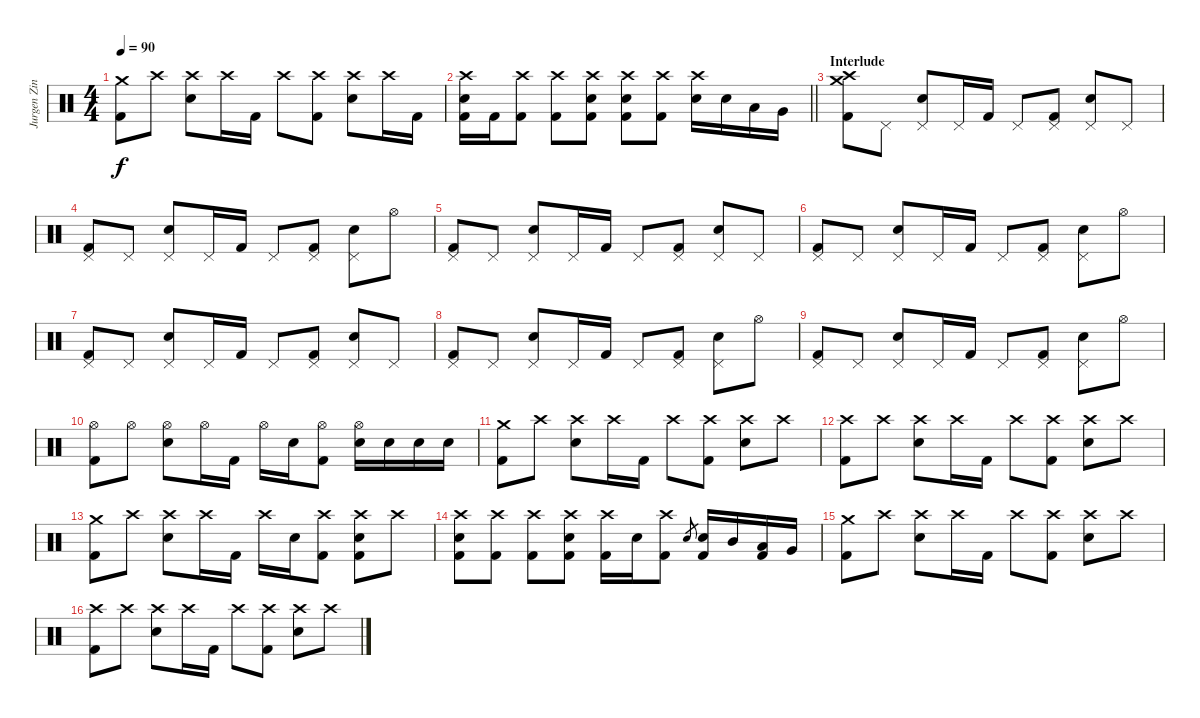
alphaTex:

\track ("Jurgen Zing" "Jurgen Zin") {instrument percussion}
\staff {score}
\articulation defaults
\ts (4 4)
\tempo 90
\clef neutral
\ks c
("Crash medium (hit)" "Kick (hit) 2").8{dy f} "Crash high (hit)".8 ("Crash high (hit)" "Electric Snare (hit)").8 "Crash high (hit)".16 "Kick (hit) 2".16 "Crash high (hit)".8 ("Crash high (hit)" "Kick (hit) 2").8 ("Crash high (hit)" "Electric Snare (hit)").8 "Crash high (hit)".16 "Kick (hit) 2".16 |
\barLineRight lightlight
("Crash high (hit)" "Electric Snare (hit)" "Kick (hit) 2").16 "Kick (hit) 2".16 ("Crash high (hit)" "Kick (hit) 2").8 ("Crash high (hit)" "Kick (hit) 2").8 ("Crash high (hit)" "Electric Snare (hit)" "Kick (hit) 2").8 ("Crash high (hit)" "Electric Snare (hit)" "Kick (hit) 2").8 ("Crash high (hit)" "Kick (hit) 2").8 ("Crash high (hit)" "Electric Snare (hit)").16 "Electric Snare (hit)".16 "Low Tom (hit)".16 "Very Low Tom (hit)".16 |
\section ("" "Interlude")
("Crash medium (hit)" "Crash high (hit)" "Kick (hit) 2").8 "Pedal Hi-Hat (hit)".8 ("Pedal Hi-Hat (hit)" "Electric Snare (hit)").8 "Pedal Hi-Hat (hit)".16 "Kick (hit) 2".16 "Pedal Hi-Hat (hit)".8 ("Pedal Hi-Hat (hit)" "Kick (hit) 2").8 ("Pedal Hi-Hat (hit)" "Electric Snare (hit)").8 "Pedal Hi-Hat (hit)".8 |
("Pedal Hi-Hat (hit)" "Kick (hit) 2").8 "Pedal Hi-Hat (hit)".8 ("Pedal Hi-Hat (hit)" "Electric Snare (hit)").8 "Pedal Hi-Hat (hit)".16 "Kick (hit) 2".16 "Pedal Hi-Hat (hit)".8 ("Pedal Hi-Hat (hit)" "Kick (hit) 2").8 ("Pedal Hi-Hat (hit)" "Electric Snare (hit)").8 "Hi-Hat (open)".8 |
("Pedal Hi-Hat (hit)" "Kick (hit) 2").8 "Pedal Hi-Hat (hit)".8 ("Pedal Hi-Hat (hit)" "Electric Snare (hit)").8 "Pedal Hi-Hat (hit)".16 "Kick (hit) 2".16 "Pedal Hi-Hat (hit)".8 ("Pedal Hi-Hat (hit)" "Kick (hit) 2").8 ("Pedal Hi-Hat (hit)" "Electric Snare (hit)").8 "Pedal Hi-Hat (hit)".8 |
("Pedal Hi-Hat (hit)" "Kick (hit) 2").8 "Pedal Hi-Hat (hit)".8 ("Pedal Hi-Hat (hit)" "Electric Snare (hit)").8 "Pedal Hi-Hat (hit)".16 "Kick (hit) 2".16 "Pedal Hi-Hat (hit)".8 ("Pedal Hi-Hat (hit)" "Kick (hit) 2").8 ("Pedal Hi-Hat (hit)" "Electric Snare (hit)").8 "Hi-Hat (open)".8 |
("Pedal Hi-Hat (hit)" "Kick (hit) 2").8 "Pedal Hi-Hat (hit)".8 ("Pedal Hi-Hat (hit)" "Electric Snare (hit)").8 "Pedal Hi-Hat (hit)".16 "Kick (hit) 2".16 "Pedal Hi-Hat (hit)".8 ("Pedal Hi-Hat (hit)" "Kick (hit) 2").8 ("Pedal Hi-Hat (hit)" "Electric Snare (hit)").8 "Pedal Hi-Hat (hit)".8 |
("Pedal Hi-Hat (hit)" "Kick (hit) 2").8 "Pedal Hi-Hat (hit)".8 ("Pedal Hi-Hat (hit)" "Electric Snare (hit)").8 "Pedal Hi-Hat (hit)".16 "Kick (hit) 2".16 "Pedal Hi-Hat (hit)".8 ("Pedal Hi-Hat (hit)" "Kick (hit) 2").8 ("Pedal Hi-Hat (hit)" "Electric Snare (hit)").8 "Hi-Hat (open)".8 |
("Pedal Hi-Hat (hit)" "Kick (hit) 2").8 "Pedal Hi-Hat (hit)".8 ("Pedal Hi-Hat (hit)" "Electric Snare (hit)").8 "Pedal Hi-Hat (hit)".16 "Kick (hit) 2".16 "Pedal Hi-Hat (hit)".8 ("Pedal Hi-Hat (hit)" "Kick (hit) 2").8 ("Pedal Hi-Hat (hit)" "Electric Snare (hit)").8 "Hi-Hat (open)".8 |
("Hi-Hat (open)" "Kick (hit) 2").8 "Hi-Hat (open)".8 ("Hi-Hat (open)" "Electric Snare (hit)").8 "Hi-Hat (open)".16 "Kick (hit) 2".16 "Hi-Hat (open)".16 "Electric Snare (hit)".16 ("Hi-Hat (open)" "Kick (hit) 2").8 ("Hi-Hat (open)" "Electric Snare (hit)").16 "Electric Snare (hit)".16 "Electric Snare (hit)".16 "Electric Snare (hit)".16 |
("Crash medium (hit)" "Kick (hit) 2").8 "Crash high (hit)".8 ("Crash high (hit)" "Electric Snare (hit)").8 "Crash high (hit)".16 "Kick (hit) 2".16 "Crash high (hit)".8 ("Crash high (hit)" "Kick (hit) 2").8 ("Crash high (hit)" "Electric Snare (hit)").8 "Crash high (hit)".8 |
("Crash high (hit)" "Kick (hit) 2").8 "Crash high (hit)".8 ("Crash high (hit)" "Electric Snare (hit)").8 "Crash high (hit)".16 "Kick (hit) 2".16 "Crash high (hit)".8 ("Crash high (hit)" "Kick (hit) 2").8 ("Crash high (hit)" "Electric Snare (hit)").8 "Crash high (hit)".8 |
("Crash medium (hit)" "Kick (hit) 2").8 "Crash high (hit)".8 ("Crash high (hit)" "Electric Snare (hit)").8 "Crash high (hit)".16 "Kick (hit) 2".16 "Crash high (hit)".16 "Electric Snare (hit)".16 ("Crash high (hit)" "Kick (hit) 2").8 ("Crash high (hit)" "Electric Snare (hit)" "Kick (hit) 2").8 "Crash high (hit)".8 |
("Crash high (hit)" "Electric Snare (hit)" "Kick (hit) 2").8 ("Crash high (hit)" "Kick (hit) 2").8 ("Crash high (hit)" "Kick (hit) 2").8 ("Crash high (hit)" "Electric Snare (hit)" "Kick (hit) 2").8 ("Crash high (hit)" "Kick (hit) 2").16 "Electric Snare (hit)".16 ("Crash high (hit)" "Kick (hit) 2").8 "Electric Snare (hit)".8{gr} ("Electric Snare (hit)" "Kick (hit) 2").16 "Mid Tom (hit)".16 ("Low Tom (hit)" "Kick (hit) 2").16 "Very Low Tom (hit)".16 |
("Crash medium (hit)" "Kick (hit) 2").8 "Crash high (hit)".8 ("Crash high (hit)" "Electric Snare (hit)").8 "Crash high (hit)".16 "Kick (hit) 2".16 "Crash high (hit)".8 ("Crash high (hit)" "Kick (hit) 2").8 ("Crash high (hit)" "Electric Snare (hit)").8 "Crash high (hit)".8 |
("Crash high (hit)" "Kick (hit) 2").8 "Crash high (hit)".8 ("Crash high (hit)" "Electric Snare (hit)").8 "Crash high (hit)".16 "Kick (hit) 2".16 "Crash high (hit)".8 ("Crash high (hit)" "Kick (hit) 2").8 ("Crash high (hit)" "Electric Snare (hit)").8 "Crash high (hit)".8
